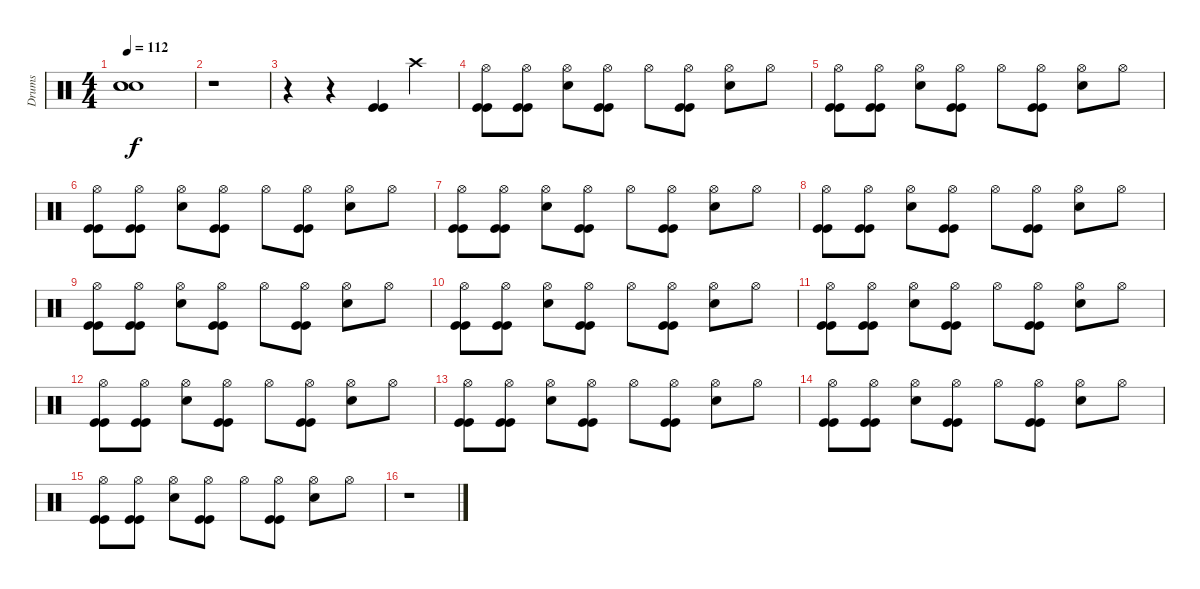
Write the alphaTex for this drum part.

\track ("Drums" "Drums") {instrument percussion}
\staff {score}
\articulation defaults
\ts (4 4)
\tempo 112
\clef neutral
\ks c
("Snare (hit)"{t} "Snare (hit)"{t} "Snare (hit)"{t}).1{dy f} |
r.1 |
r.4 r.4 ("Kick (hit)" "Kick (hit)").4 "Crash high (hit)".4 |
("Hi-Hat (open)" "Kick (hit)" "Kick (hit)").8 ("Hi-Hat (open)" "Kick (hit)" "Kick (hit)").8 ("Hi-Hat (open)" "Snare (hit) 2").8 ("Hi-Hat (open)" "Kick (hit)" "Kick (hit)").8 "Hi-Hat (open)".8 ("Hi-Hat (open)" "Kick (hit)" "Kick (hit)").8 ("Hi-Hat (open)" "Snare (hit) 2").8 "Hi-Hat (open)".8 |
("Hi-Hat (open)" "Kick (hit)" "Kick (hit)").8 ("Hi-Hat (open)" "Kick (hit)" "Kick (hit)").8 ("Hi-Hat (open)" "Snare (hit) 2").8 ("Hi-Hat (open)" "Kick (hit)" "Kick (hit)").8 "Hi-Hat (open)".8 ("Hi-Hat (open)" "Kick (hit)" "Kick (hit)").8 ("Hi-Hat (open)" "Snare (hit) 2").8 "Hi-Hat (open)".8 |
("Hi-Hat (open)" "Kick (hit)" "Kick (hit)").8 ("Hi-Hat (open)" "Kick (hit)" "Kick (hit)").8 ("Hi-Hat (open)" "Snare (hit) 2").8 ("Hi-Hat (open)" "Kick (hit)" "Kick (hit)").8 "Hi-Hat (open)".8 ("Hi-Hat (open)" "Kick (hit)" "Kick (hit)").8 ("Hi-Hat (open)" "Snare (hit) 2").8 "Hi-Hat (open)".8 |
("Hi-Hat (open)" "Kick (hit)" "Kick (hit)").8 ("Hi-Hat (open)" "Kick (hit)" "Kick (hit)").8 ("Hi-Hat (open)" "Snare (hit) 2").8 ("Hi-Hat (open)" "Kick (hit)" "Kick (hit)").8 "Hi-Hat (open)".8 ("Hi-Hat (open)" "Kick (hit)" "Kick (hit)").8 ("Hi-Hat (open)" "Snare (hit) 2").8 "Hi-Hat (open)".8 |
("Hi-Hat (open)" "Kick (hit)" "Kick (hit)").8 ("Hi-Hat (open)" "Kick (hit)" "Kick (hit)").8 ("Hi-Hat (open)" "Snare (hit) 2").8 ("Hi-Hat (open)" "Kick (hit)" "Kick (hit)").8 "Hi-Hat (open)".8 ("Hi-Hat (open)" "Kick (hit)" "Kick (hit)").8 ("Hi-Hat (open)" "Snare (hit) 2").8 "Hi-Hat (open)".8 |
("Hi-Hat (open)" "Kick (hit)" "Kick (hit)").8 ("Hi-Hat (open)" "Kick (hit)" "Kick (hit)").8 ("Hi-Hat (open)" "Snare (hit) 2").8 ("Hi-Hat (open)" "Kick (hit)" "Kick (hit)").8 "Hi-Hat (open)".8 ("Hi-Hat (open)" "Kick (hit)" "Kick (hit)").8 ("Hi-Hat (open)" "Snare (hit) 2").8 "Hi-Hat (open)".8 |
("Hi-Hat (open)" "Kick (hit)" "Kick (hit)").8 ("Hi-Hat (open)" "Kick (hit)" "Kick (hit)").8 ("Hi-Hat (open)" "Snare (hit) 2").8 ("Hi-Hat (open)" "Kick (hit)" "Kick (hit)").8 "Hi-Hat (open)".8 ("Hi-Hat (open)" "Kick (hit)" "Kick (hit)").8 ("Hi-Hat (open)" "Snare (hit) 2").8 "Hi-Hat (open)".8 |
("Hi-Hat (open)" "Kick (hit)" "Kick (hit)").8 ("Hi-Hat (open)" "Kick (hit)" "Kick (hit)").8 ("Hi-Hat (open)" "Snare (hit) 2").8 ("Hi-Hat (open)" "Kick (hit)" "Kick (hit)").8 "Hi-Hat (open)".8 ("Hi-Hat (open)" "Kick (hit)" "Kick (hit)").8 ("Hi-Hat (open)" "Snare (hit) 2").8 "Hi-Hat (open)".8 |
("Hi-Hat (open)" "Kick (hit)" "Kick (hit)").8 ("Hi-Hat (open)" "Kick (hit)" "Kick (hit)").8 ("Hi-Hat (open)" "Snare (hit) 2").8 ("Hi-Hat (open)" "Kick (hit)" "Kick (hit)").8 "Hi-Hat (open)".8 ("Hi-Hat (open)" "Kick (hit)" "Kick (hit)").8 ("Hi-Hat (open)" "Snare (hit) 2").8 "Hi-Hat (open)".8 |
("Hi-Hat (open)" "Kick (hit)" "Kick (hit)").8 ("Hi-Hat (open)" "Kick (hit)" "Kick (hit)").8 ("Hi-Hat (open)" "Snare (hit) 2").8 ("Hi-Hat (open)" "Kick (hit)" "Kick (hit)").8 "Hi-Hat (open)".8 ("Hi-Hat (open)" "Kick (hit)" "Kick (hit)").8 ("Hi-Hat (open)" "Snare (hit) 2").8 "Hi-Hat (open)".8 |
("Hi-Hat (open)" "Kick (hit)" "Kick (hit)").8 ("Hi-Hat (open)" "Kick (hit)" "Kick (hit)").8 ("Hi-Hat (open)" "Snare (hit) 2").8 ("Hi-Hat (open)" "Kick (hit)" "Kick (hit)").8 "Hi-Hat (open)".8 ("Hi-Hat (open)" "Kick (hit)" "Kick (hit)").8 ("Hi-Hat (open)" "Snare (hit) 2").8 "Hi-Hat (open)".8 |
("Hi-Hat (open)" "Kick (hit)" "Kick (hit)").8 ("Hi-Hat (open)" "Kick (hit)" "Kick (hit)").8 ("Hi-Hat (open)" "Snare (hit) 2").8 ("Hi-Hat (open)" "Kick (hit)" "Kick (hit)").8 "Hi-Hat (open)".8 ("Hi-Hat (open)" "Kick (hit)" "Kick (hit)").8 ("Hi-Hat (open)" "Snare (hit) 2").8 "Hi-Hat (open)".8 |
r.1
